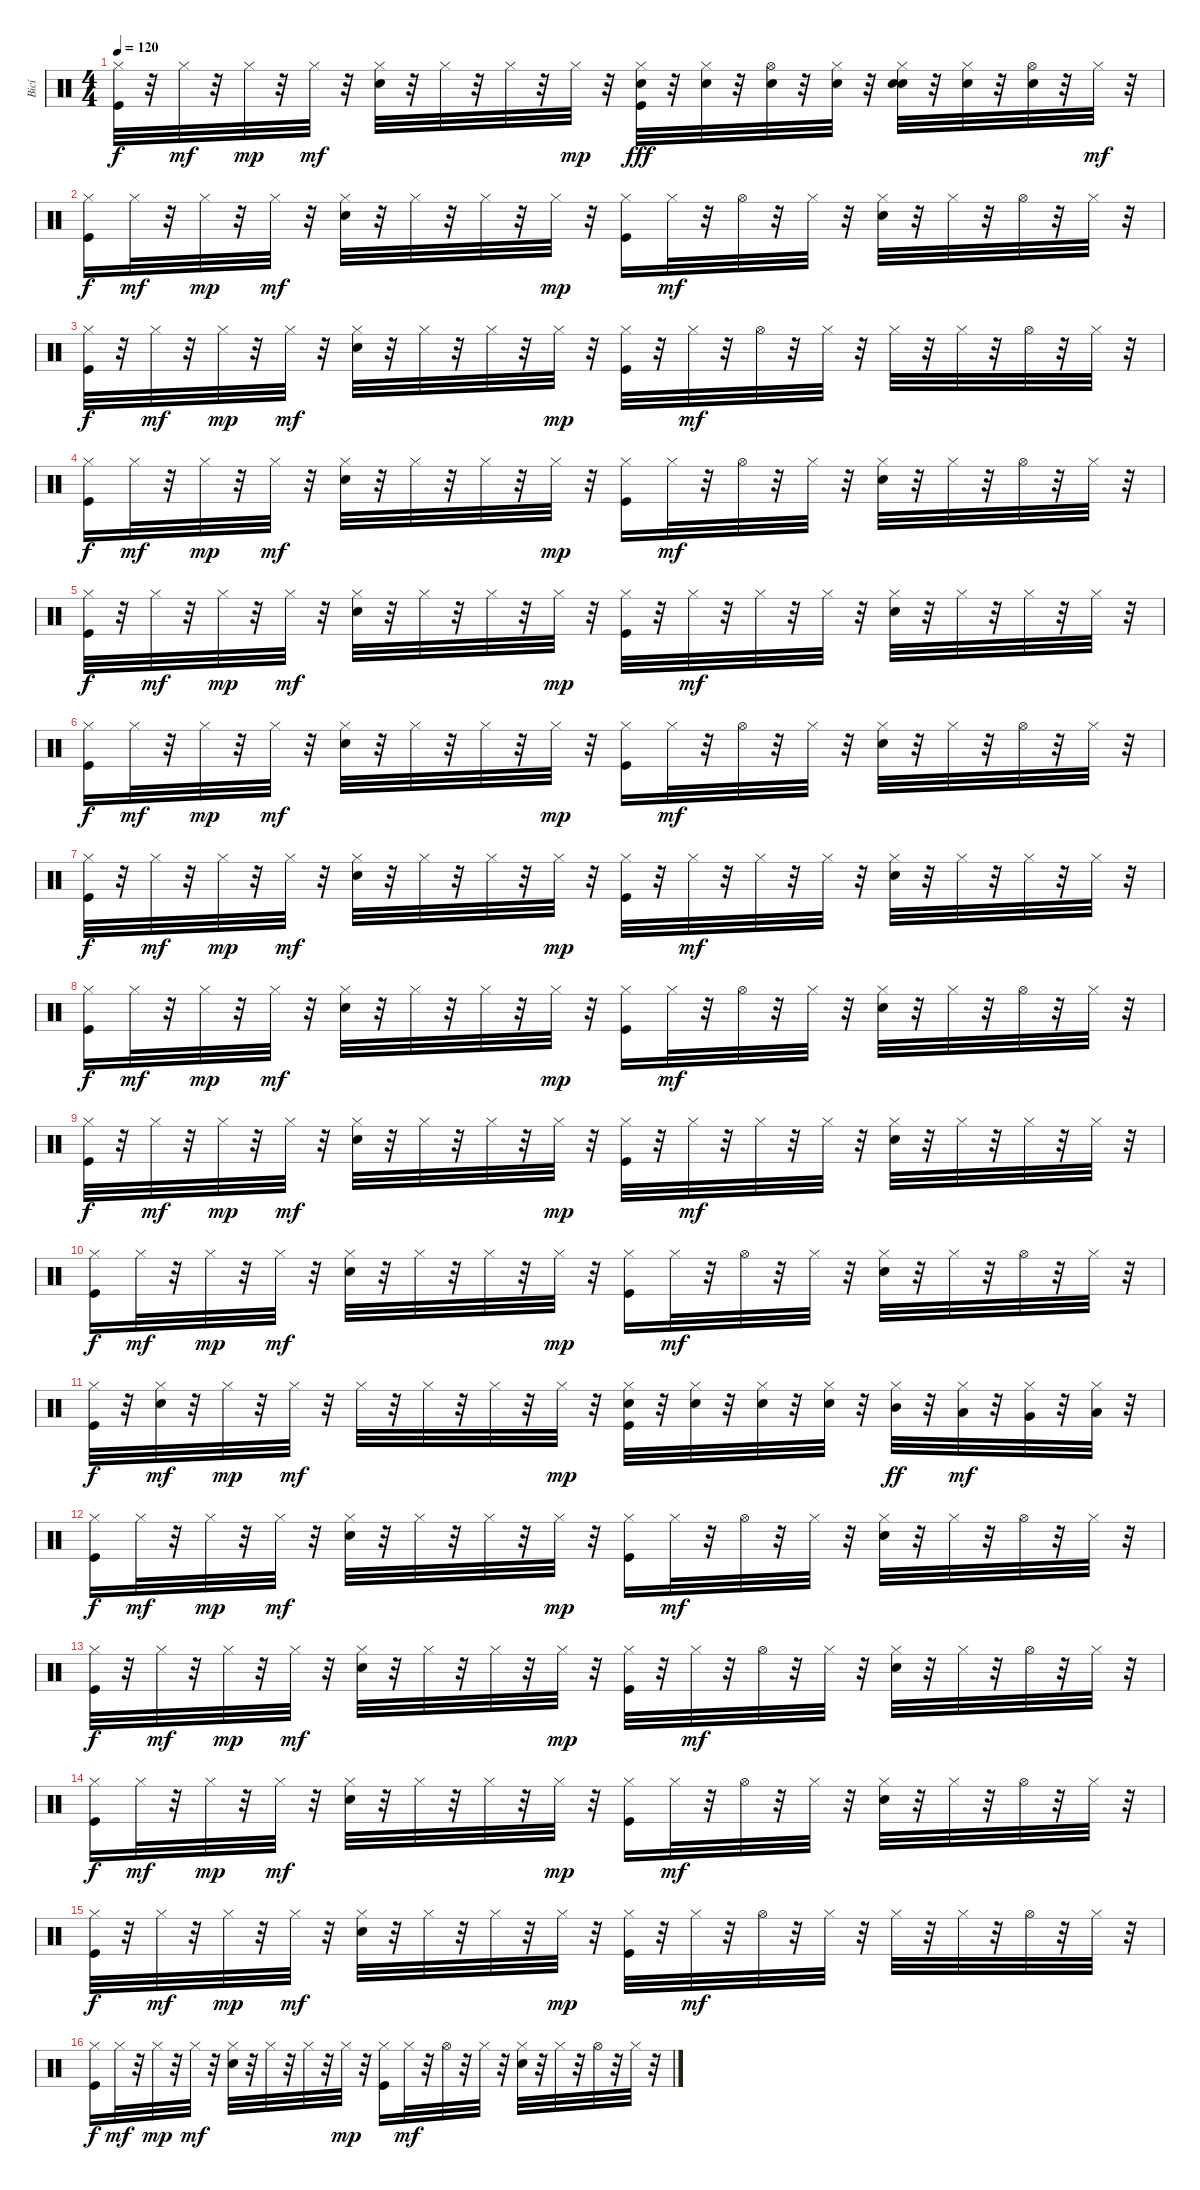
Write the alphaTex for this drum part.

\track ("Bicí" "Bicí") {instrument percussion}
\staff {score}
\articulation defaults
\ts (4 4)
\tempo 120
\clef neutral
\ks c
("Hi-Hat (closed)" "Kick (hit)").32{dy f} r.32 "Hi-Hat (closed)".32{dy mf} r.32 "Hi-Hat (closed)".32{dy mp} r.32 "Hi-Hat (closed)".32{dy mf} r.32 ("Hi-Hat (closed)" "Snare (hit) 2").32 r.32 "Hi-Hat (closed)".32 r.32 "Hi-Hat (closed)".32 r.32 "Hi-Hat (closed)".32{dy mp} r.32 ("Hi-Hat (closed)" "Kick (hit)" "Snare (hit)").32{dy fff} r.32 ("Hi-Hat (closed)" "Snare (hit)").32 r.32 ("Hi-Hat (open)" "Snare (hit)").32 r.32 ("Hi-Hat (closed)" "Snare (hit)").32 r.32 ("Hi-Hat (closed)" "Snare (hit) 2" "Snare (hit)").32 r.32 ("Hi-Hat (closed)" "Snare (hit)").32 r.32 ("Hi-Hat (open)" "Snare (hit)").32 r.32 "Hi-Hat (closed)".32{dy mf} r.32 |
("Hi-Hat (closed)" "Kick (hit)").16{dy f} "Hi-Hat (closed)".32{dy mf} r.32 "Hi-Hat (closed)".32{dy mp} r.32 "Hi-Hat (closed)".32{dy mf} r.32 ("Hi-Hat (closed)" "Snare (hit) 2").32 r.32 "Hi-Hat (closed)".32 r.32 "Hi-Hat (closed)".32 r.32 "Hi-Hat (closed)".32{dy mp} r.32 ("Hi-Hat (closed)" "Kick (hit)").16 "Hi-Hat (closed)".32{dy mf} r.32 "Hi-Hat (open)".32 r.32 "Hi-Hat (closed)".32 r.32 ("Hi-Hat (closed)" "Snare (hit) 2").32 r.32 "Hi-Hat (closed)".32 r.32 "Hi-Hat (open)".32 r.32 "Hi-Hat (closed)".32 r.32 |
("Hi-Hat (closed)" "Kick (hit)").32{dy f} r.32 "Hi-Hat (closed)".32{dy mf} r.32 "Hi-Hat (closed)".32{dy mp} r.32 "Hi-Hat (closed)".32{dy mf} r.32 ("Hi-Hat (closed)" "Snare (hit) 2").32 r.32 "Hi-Hat (closed)".32 r.32 "Hi-Hat (closed)".32 r.32 "Hi-Hat (closed)".32{dy mp} r.32 ("Hi-Hat (closed)" "Kick (hit)").32 r.32 "Hi-Hat (closed)".32{dy mf} r.32 "Hi-Hat (open)".32 r.32 "Hi-Hat (closed)".32 r.32 "Hi-Hat (closed)".32 r.32 "Hi-Hat (closed)".32 r.32 "Hi-Hat (open)".32 r.32 "Hi-Hat (closed)".32 r.32 |
("Hi-Hat (closed)" "Kick (hit)").16{dy f} "Hi-Hat (closed)".32{dy mf} r.32 "Hi-Hat (closed)".32{dy mp} r.32 "Hi-Hat (closed)".32{dy mf} r.32 ("Hi-Hat (closed)" "Snare (hit) 2").32 r.32 "Hi-Hat (closed)".32 r.32 "Hi-Hat (closed)".32 r.32 "Hi-Hat (closed)".32{dy mp} r.32 ("Hi-Hat (closed)" "Kick (hit)").16 "Hi-Hat (closed)".32{dy mf} r.32 "Hi-Hat (open)".32 r.32 "Hi-Hat (closed)".32 r.32 ("Hi-Hat (closed)" "Snare (hit) 2").32 r.32 "Hi-Hat (closed)".32 r.32 "Hi-Hat (open)".32 r.32 "Hi-Hat (closed)".32 r.32 |
("Hi-Hat (closed)" "Kick (hit)").32{dy f} r.32 "Hi-Hat (closed)".32{dy mf} r.32 "Hi-Hat (closed)".32{dy mp} r.32 "Hi-Hat (closed)".32{dy mf} r.32 ("Hi-Hat (closed)" "Snare (hit) 2").32 r.32 "Hi-Hat (closed)".32 r.32 "Hi-Hat (closed)".32 r.32 "Hi-Hat (closed)".32{dy mp} r.32 ("Hi-Hat (closed)" "Kick (hit)").32 r.32 "Hi-Hat (closed)".32{dy mf} r.32 "Hi-Hat (closed)".32 r.32 "Hi-Hat (closed)".32 r.32 ("Hi-Hat (closed)" "Snare (hit) 2").32 r.32 "Hi-Hat (closed)".32 r.32 "Hi-Hat (closed)".32 r.32 "Hi-Hat (closed)".32 r.32 |
("Hi-Hat (closed)" "Kick (hit)").16{dy f} "Hi-Hat (closed)".32{dy mf} r.32 "Hi-Hat (closed)".32{dy mp} r.32 "Hi-Hat (closed)".32{dy mf} r.32 ("Hi-Hat (closed)" "Snare (hit) 2").32 r.32 "Hi-Hat (closed)".32 r.32 "Hi-Hat (closed)".32 r.32 "Hi-Hat (closed)".32{dy mp} r.32 ("Hi-Hat (closed)" "Kick (hit)").16 "Hi-Hat (closed)".32{dy mf} r.32 "Hi-Hat (open)".32 r.32 "Hi-Hat (closed)".32 r.32 ("Hi-Hat (closed)" "Snare (hit) 2").32 r.32 "Hi-Hat (closed)".32 r.32 "Hi-Hat (open)".32 r.32 "Hi-Hat (closed)".32 r.32 |
("Hi-Hat (closed)" "Kick (hit)").32{dy f} r.32 "Hi-Hat (closed)".32{dy mf} r.32 "Hi-Hat (closed)".32{dy mp} r.32 "Hi-Hat (closed)".32{dy mf} r.32 ("Hi-Hat (closed)" "Snare (hit) 2").32 r.32 "Hi-Hat (closed)".32 r.32 "Hi-Hat (closed)".32 r.32 "Hi-Hat (closed)".32{dy mp} r.32 ("Hi-Hat (closed)" "Kick (hit)").32 r.32 "Hi-Hat (closed)".32{dy mf} r.32 "Hi-Hat (closed)".32 r.32 "Hi-Hat (closed)".32 r.32 ("Hi-Hat (closed)" "Snare (hit) 2").32 r.32 "Hi-Hat (closed)".32 r.32 "Hi-Hat (closed)".32 r.32 "Hi-Hat (closed)".32 r.32 |
("Hi-Hat (closed)" "Kick (hit)").16{dy f} "Hi-Hat (closed)".32{dy mf} r.32 "Hi-Hat (closed)".32{dy mp} r.32 "Hi-Hat (closed)".32{dy mf} r.32 ("Hi-Hat (closed)" "Snare (hit) 2").32 r.32 "Hi-Hat (closed)".32 r.32 "Hi-Hat (closed)".32 r.32 "Hi-Hat (closed)".32{dy mp} r.32 ("Hi-Hat (closed)" "Kick (hit)").16 "Hi-Hat (closed)".32{dy mf} r.32 "Hi-Hat (open)".32 r.32 "Hi-Hat (closed)".32 r.32 ("Hi-Hat (closed)" "Snare (hit) 2").32 r.32 "Hi-Hat (closed)".32 r.32 "Hi-Hat (open)".32 r.32 "Hi-Hat (closed)".32 r.32 |
("Hi-Hat (closed)" "Kick (hit)").32{dy f} r.32 "Hi-Hat (closed)".32{dy mf} r.32 "Hi-Hat (closed)".32{dy mp} r.32 "Hi-Hat (closed)".32{dy mf} r.32 ("Hi-Hat (closed)" "Snare (hit) 2").32 r.32 "Hi-Hat (closed)".32 r.32 "Hi-Hat (closed)".32 r.32 "Hi-Hat (closed)".32{dy mp} r.32 ("Hi-Hat (closed)" "Kick (hit)").32 r.32 "Hi-Hat (closed)".32{dy mf} r.32 "Hi-Hat (closed)".32 r.32 "Hi-Hat (closed)".32 r.32 ("Hi-Hat (closed)" "Snare (hit) 2").32 r.32 "Hi-Hat (closed)".32 r.32 "Hi-Hat (closed)".32 r.32 "Hi-Hat (closed)".32 r.32 |
("Hi-Hat (closed)" "Kick (hit)").16{dy f} "Hi-Hat (closed)".32{dy mf} r.32 "Hi-Hat (closed)".32{dy mp} r.32 "Hi-Hat (closed)".32{dy mf} r.32 ("Hi-Hat (closed)" "Snare (hit) 2").32 r.32 "Hi-Hat (closed)".32 r.32 "Hi-Hat (closed)".32 r.32 "Hi-Hat (closed)".32{dy mp} r.32 ("Hi-Hat (closed)" "Kick (hit)").16 "Hi-Hat (closed)".32{dy mf} r.32 "Hi-Hat (open)".32 r.32 "Hi-Hat (closed)".32 r.32 ("Hi-Hat (closed)" "Snare (hit) 2").32 r.32 "Hi-Hat (closed)".32 r.32 "Hi-Hat (open)".32 r.32 "Hi-Hat (closed)".32 r.32 |
("Hi-Hat (closed)" "Kick (hit)").32{dy f} r.32 ("Hi-Hat (closed)" "Snare (hit) 2").32{dy mf} r.32 "Hi-Hat (closed)".32{dy mp} r.32 "Hi-Hat (closed)".32{dy mf} r.32 "Hi-Hat (closed)".32 r.32 "Hi-Hat (closed)".32 r.32 "Hi-Hat (closed)".32 r.32 "Hi-Hat (closed)".32{dy mp} r.32 ("Hi-Hat (closed)" "Kick (hit)" "Snare (hit) 2").32 r.32 ("Hi-Hat (closed)" "Snare (hit) 2").32 r.32 ("Hi-Hat (closed)" "Snare (hit) 2").32 r.32 ("Hi-Hat (closed)" "Snare (hit) 2").32 r.32 ("Hi-Hat (closed)" "Mid Tom (hit)").32{dy ff} r.32 ("Hi-Hat (closed)" "Low Tom (hit)").32{dy mf} r.32 ("Hi-Hat (closed)" "Very Low Tom (hit)").32 r.32 ("Hi-Hat (closed)" "Low Floor Tom (hit)").32 r.32 |
("Hi-Hat (closed)" "Kick (hit)").16{dy f} "Hi-Hat (closed)".32{dy mf} r.32 "Hi-Hat (closed)".32{dy mp} r.32 "Hi-Hat (closed)".32{dy mf} r.32 ("Hi-Hat (closed)" "Snare (hit) 2").32 r.32 "Hi-Hat (closed)".32 r.32 "Hi-Hat (closed)".32 r.32 "Hi-Hat (closed)".32{dy mp} r.32 ("Hi-Hat (closed)" "Kick (hit)").16 "Hi-Hat (closed)".32{dy mf} r.32 "Hi-Hat (open)".32 r.32 "Hi-Hat (closed)".32 r.32 ("Hi-Hat (closed)" "Snare (hit) 2").32 r.32 "Hi-Hat (closed)".32 r.32 "Hi-Hat (open)".32 r.32 "Hi-Hat (closed)".32 r.32 |
("Hi-Hat (closed)" "Kick (hit)").32{dy f} r.32 "Hi-Hat (closed)".32{dy mf} r.32 "Hi-Hat (closed)".32{dy mp} r.32 "Hi-Hat (closed)".32{dy mf} r.32 ("Hi-Hat (closed)" "Snare (hit) 2").32 r.32 "Hi-Hat (closed)".32 r.32 "Hi-Hat (closed)".32 r.32 "Hi-Hat (closed)".32{dy mp} r.32 ("Hi-Hat (closed)" "Kick (hit)").32 r.32 "Hi-Hat (closed)".32{dy mf} r.32 "Hi-Hat (open)".32 r.32 "Hi-Hat (closed)".32 r.32 ("Hi-Hat (closed)" "Snare (hit) 2").32 r.32 "Hi-Hat (closed)".32 r.32 "Hi-Hat (open)".32 r.32 "Hi-Hat (closed)".32 r.32 |
("Hi-Hat (closed)" "Kick (hit)").16{dy f} "Hi-Hat (closed)".32{dy mf} r.32 "Hi-Hat (closed)".32{dy mp} r.32 "Hi-Hat (closed)".32{dy mf} r.32 ("Hi-Hat (closed)" "Snare (hit) 2").32 r.32 "Hi-Hat (closed)".32 r.32 "Hi-Hat (closed)".32 r.32 "Hi-Hat (closed)".32{dy mp} r.32 ("Hi-Hat (closed)" "Kick (hit)").16 "Hi-Hat (closed)".32{dy mf} r.32 "Hi-Hat (open)".32 r.32 "Hi-Hat (closed)".32 r.32 ("Hi-Hat (closed)" "Snare (hit) 2").32 r.32 "Hi-Hat (closed)".32 r.32 "Hi-Hat (open)".32 r.32 "Hi-Hat (closed)".32 r.32 |
("Hi-Hat (closed)" "Kick (hit)").32{dy f} r.32 "Hi-Hat (closed)".32{dy mf} r.32 "Hi-Hat (closed)".32{dy mp} r.32 "Hi-Hat (closed)".32{dy mf} r.32 ("Hi-Hat (closed)" "Snare (hit) 2").32 r.32 "Hi-Hat (closed)".32 r.32 "Hi-Hat (closed)".32 r.32 "Hi-Hat (closed)".32{dy mp} r.32 ("Hi-Hat (closed)" "Kick (hit)").32 r.32 "Hi-Hat (closed)".32{dy mf} r.32 "Hi-Hat (open)".32 r.32 "Hi-Hat (closed)".32 r.32 "Hi-Hat (closed)".32 r.32 "Hi-Hat (closed)".32 r.32 "Hi-Hat (open)".32 r.32 "Hi-Hat (closed)".32 r.32 |
("Hi-Hat (closed)" "Kick (hit)").16{dy f} "Hi-Hat (closed)".32{dy mf} r.32 "Hi-Hat (closed)".32{dy mp} r.32 "Hi-Hat (closed)".32{dy mf} r.32 ("Hi-Hat (closed)" "Snare (hit) 2").32 r.32 "Hi-Hat (closed)".32 r.32 "Hi-Hat (closed)".32 r.32 "Hi-Hat (closed)".32{dy mp} r.32 ("Hi-Hat (closed)" "Kick (hit)").16 "Hi-Hat (closed)".32{dy mf} r.32 "Hi-Hat (open)".32 r.32 "Hi-Hat (closed)".32 r.32 ("Hi-Hat (closed)" "Snare (hit) 2").32 r.32 "Hi-Hat (closed)".32 r.32 "Hi-Hat (open)".32 r.32 "Hi-Hat (closed)".32 r.32
